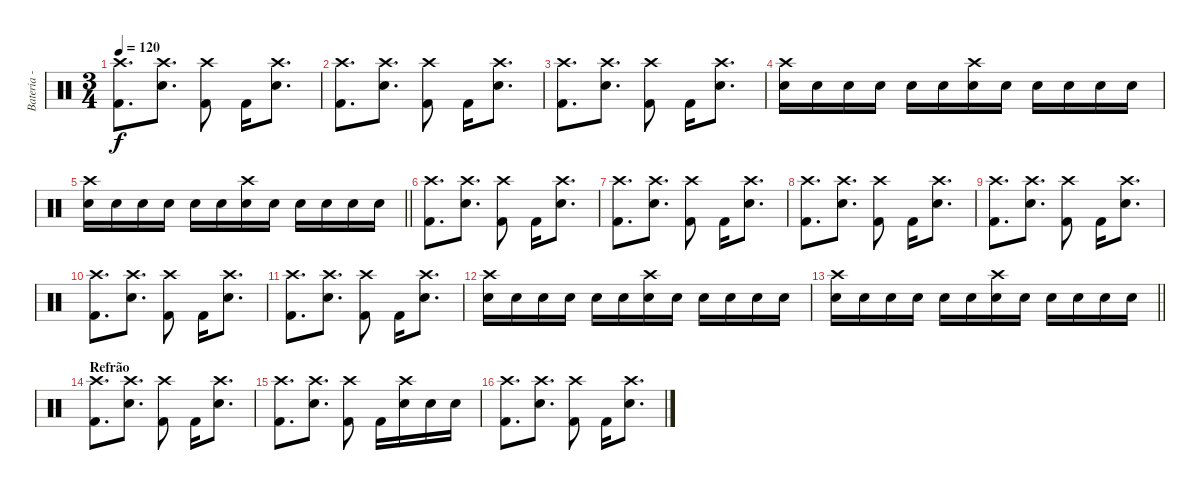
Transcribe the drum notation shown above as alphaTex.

\track ("Bateria - Larzon" "Bateria - ") {instrument percussion}
\staff {score}
\articulation defaults
\ts (3 4)
\tempo 120
\clef neutral
\ks c
("Kick (hit) 2" "Crash high (hit)").8{d dy f} ("Snare (hit) 2" "Crash high (hit)").8{d} ("Kick (hit) 2" "Crash high (hit)").8 "Kick (hit) 2".16 ("Snare (hit) 2" "Crash high (hit)").8{d} |
("Kick (hit) 2" "Crash high (hit)").8{d} ("Snare (hit) 2" "Crash high (hit)").8{d} ("Kick (hit) 2" "Crash high (hit)").8 "Kick (hit) 2".16 ("Snare (hit) 2" "Crash high (hit)").8{d} |
("Kick (hit) 2" "Crash high (hit)").8{d} ("Snare (hit) 2" "Crash high (hit)").8{d} ("Kick (hit) 2" "Crash high (hit)").8 "Kick (hit) 2".16 ("Snare (hit) 2" "Crash high (hit)").8{d} |
("Snare (hit) 2" "Crash high (hit)").16 "Snare (hit) 2".16 "Snare (hit) 2".16 "Snare (hit) 2".16 "Snare (hit) 2".16 "Snare (hit) 2".16 ("Snare (hit) 2" "Crash high (hit)").16 "Snare (hit) 2".16 "Snare (hit) 2".16 "Snare (hit) 2".16 "Snare (hit) 2".16 "Snare (hit) 2".16 |
\barLineRight lightlight
("Snare (hit) 2" "Crash high (hit)").16 "Snare (hit) 2".16 "Snare (hit) 2".16 "Snare (hit) 2".16 "Snare (hit) 2".16 "Snare (hit) 2".16 ("Snare (hit) 2" "Crash high (hit)").16 "Snare (hit) 2".16 "Snare (hit) 2".16 "Snare (hit) 2".16 "Snare (hit) 2".16 "Snare (hit) 2".16 |
("Kick (hit) 2" "Crash high (hit)").8{d} ("Snare (hit) 2" "Crash high (hit)").8{d} ("Kick (hit) 2" "Crash high (hit)").8 "Kick (hit) 2".16 ("Snare (hit) 2" "Crash high (hit)").8{d} |
("Kick (hit) 2" "Crash high (hit)").8{d} ("Snare (hit) 2" "Crash high (hit)").8{d} ("Kick (hit) 2" "Crash high (hit)").8 "Kick (hit) 2".16 ("Snare (hit) 2" "Crash high (hit)").8{d} |
("Kick (hit) 2" "Crash high (hit)").8{d} ("Snare (hit) 2" "Crash high (hit)").8{d} ("Kick (hit) 2" "Crash high (hit)").8 "Kick (hit) 2".16 ("Snare (hit) 2" "Crash high (hit)").8{d} |
("Kick (hit) 2" "Crash high (hit)").8{d} ("Snare (hit) 2" "Crash high (hit)").8{d} ("Kick (hit) 2" "Crash high (hit)").8 "Kick (hit) 2".16 ("Snare (hit) 2" "Crash high (hit)").8{d} |
("Kick (hit) 2" "Crash high (hit)").8{d} ("Snare (hit) 2" "Crash high (hit)").8{d} ("Kick (hit) 2" "Crash high (hit)").8 "Kick (hit) 2".16 ("Snare (hit) 2" "Crash high (hit)").8{d} |
("Kick (hit) 2" "Crash high (hit)").8{d} ("Snare (hit) 2" "Crash high (hit)").8{d} ("Kick (hit) 2" "Crash high (hit)").8 "Kick (hit) 2".16 ("Snare (hit) 2" "Crash high (hit)").8{d} |
("Snare (hit) 2" "Crash high (hit)").16 "Snare (hit) 2".16 "Snare (hit) 2".16 "Snare (hit) 2".16 "Snare (hit) 2".16 "Snare (hit) 2".16 ("Snare (hit) 2" "Crash high (hit)").16 "Snare (hit) 2".16 "Snare (hit) 2".16 "Snare (hit) 2".16 "Snare (hit) 2".16 "Snare (hit) 2".16 |
\barLineRight lightlight
("Snare (hit) 2" "Crash high (hit)").16 "Snare (hit) 2".16 "Snare (hit) 2".16 "Snare (hit) 2".16 "Snare (hit) 2".16 "Snare (hit) 2".16 ("Snare (hit) 2" "Crash high (hit)").16 "Snare (hit) 2".16 "Snare (hit) 2".16 "Snare (hit) 2".16 "Snare (hit) 2".16 "Snare (hit) 2".16 |
\section ("" "Refrão")
("Kick (hit) 2" "Crash high (hit)").8{d} ("Snare (hit) 2" "Crash high (hit)").8{d} ("Kick (hit) 2" "Crash high (hit)").8 "Kick (hit) 2".16 ("Snare (hit) 2" "Crash high (hit)").8{d} |
("Kick (hit) 2" "Crash high (hit)").8{d} ("Snare (hit) 2" "Crash high (hit)").8{d} ("Kick (hit) 2" "Crash high (hit)").8 "Kick (hit) 2".16 ("Snare (hit) 2" "Crash high (hit)").16 "Snare (hit) 2".16 "Snare (hit) 2".16 |
("Kick (hit) 2" "Crash high (hit)").8{d} ("Snare (hit) 2" "Crash high (hit)").8{d} ("Kick (hit) 2" "Crash high (hit)").8 "Kick (hit) 2".16 ("Snare (hit) 2" "Crash high (hit)").8{d}
